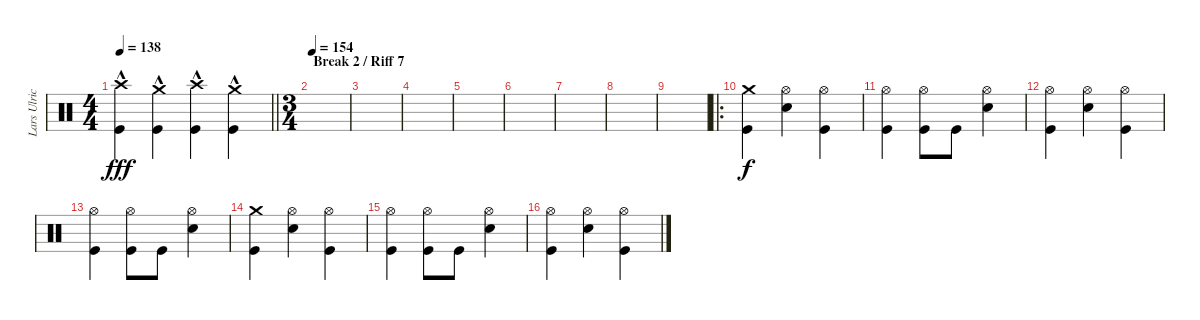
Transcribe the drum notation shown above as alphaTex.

\track ("Lars Ulrich" "Lars Ulric") {instrument percussion}
\staff {score}
\articulation defaults
\ts (4 4)
\tempo 138
\clef neutral
\barLineRight lightlight
\ks c
("Crash high (hit)"{hac} "Kick (hit)"{hac}).4{dy fff} ("Crash medium (hit)"{hac} "Kick (hit)"{hac}).4 ("Crash high (hit)"{hac} "Kick (hit)"{hac}).4 ("Crash medium (hit)"{hac} "Kick (hit)"{hac}).4 |
\ts (3 4)
\section ("" "Break 2 / Riff 7")
\tempo 154
|
|
|
|
|
|
|
|
\ro
("Crash medium (hit)" "Kick (hit)").4{dy f} ("Hi-Hat (open)" "Snare (hit) 2").4 ("Hi-Hat (open)" "Kick (hit)").4 |
("Hi-Hat (open)" "Kick (hit)").4 ("Hi-Hat (open)" "Kick (hit)").8 "Kick (hit)".8 ("Hi-Hat (open)" "Snare (hit) 2").4 |
("Hi-Hat (open)" "Kick (hit)").4 ("Hi-Hat (open)" "Snare (hit) 2").4 ("Hi-Hat (open)" "Kick (hit)").4 |
("Hi-Hat (open)" "Kick (hit)").4 ("Hi-Hat (open)" "Kick (hit)").8 "Kick (hit)".8 ("Hi-Hat (open)" "Snare (hit) 2").4 |
("Crash medium (hit)" "Kick (hit)").4 ("Hi-Hat (open)" "Snare (hit) 2").4 ("Hi-Hat (open)" "Kick (hit)").4 |
("Hi-Hat (open)" "Kick (hit)").4 ("Hi-Hat (open)" "Kick (hit)").8 "Kick (hit)".8 ("Hi-Hat (open)" "Snare (hit) 2").4 |
("Hi-Hat (open)" "Kick (hit)").4 ("Hi-Hat (open)" "Snare (hit) 2").4 ("Hi-Hat (open)" "Kick (hit)").4
